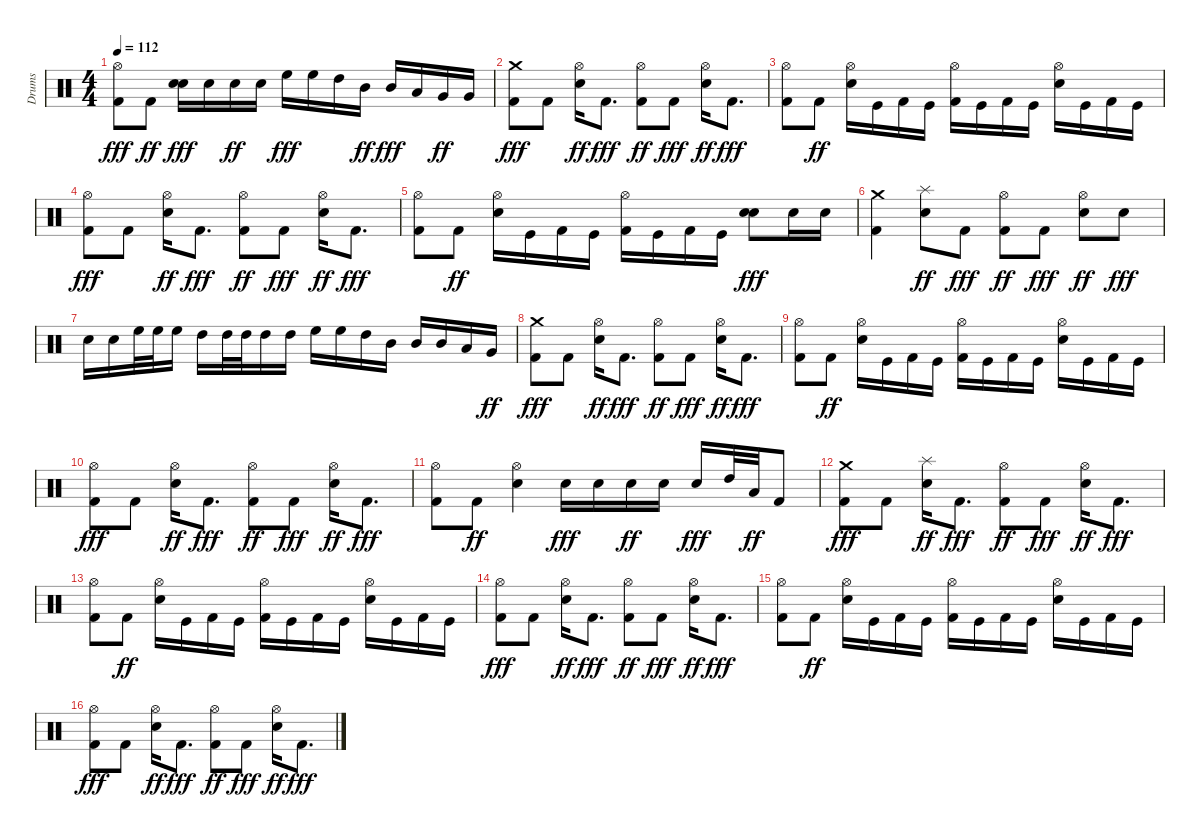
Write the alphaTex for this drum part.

\track ("Drums" "Drums") {instrument percussion}
\staff {score}
\articulation defaults
\ts (4 4)
\tempo 112
\clef neutral
\ks c
("Kick (hit) 2" "Hi-Hat (open)").8{dy fff} "Kick (hit) 2".8{dy ff} ("Snare (hit) 2" "Electric Snare (hit)").16{dy fff} "Snare (hit) 2".16 "Snare (hit) 2".16{dy ff} "Electric Snare (hit)".16 "High Floor Tom (hit)".16{dy fff} "High Floor Tom (hit)".16 "High Tom (hit)".16 "Mid Tom (hit)".16{dy ff} "Mid Tom (hit)".16{dy fff} "Low Tom (hit)".16 "Very Low Tom (hit)".16{dy ff} "Very Low Tom (hit)".16 |
("Kick (hit) 2" "Crash medium (hit)").8{dy fff} "Kick (hit) 2".8 ("Snare (hit) 2" "Hi-Hat (open)").16{dy ff} "Kick (hit) 2".8{d dy fff} ("Kick (hit) 2" "Hi-Hat (open)").8{dy ff} "Kick (hit) 2".8{dy fff} ("Snare (hit) 2" "Hi-Hat (open)").16{dy ff} "Kick (hit) 2".8{d dy fff} |
("Kick (hit) 2" "Hi-Hat (open)").8 "Kick (hit) 2".8{dy ff} ("Snare (hit) 2" "Hi-Hat (open)").16 "Kick (hit)".16 "Kick (hit) 2".16 "Kick (hit)".16 ("Kick (hit) 2" "Hi-Hat (open)").16 "Kick (hit)".16 "Kick (hit) 2".16 "Kick (hit)".16 ("Snare (hit) 2" "Hi-Hat (open)").16 "Kick (hit)".16 "Kick (hit) 2".16 "Kick (hit)".16 |
("Kick (hit) 2" "Hi-Hat (open)").8{dy fff} "Kick (hit) 2".8 ("Snare (hit) 2" "Hi-Hat (open)").16{dy ff} "Kick (hit) 2".8{d dy fff} ("Kick (hit) 2" "Hi-Hat (open)").8{dy ff} "Kick (hit) 2".8{dy fff} ("Snare (hit) 2" "Hi-Hat (open)").16{dy ff} "Kick (hit) 2".8{d dy fff} |
("Kick (hit) 2" "Hi-Hat (open)").8 "Kick (hit) 2".8{dy ff} ("Snare (hit) 2" "Hi-Hat (open)").16 "Kick (hit)".16 "Kick (hit) 2".16 "Kick (hit)".16 ("Kick (hit) 2" "Hi-Hat (open)").16 "Kick (hit)".16 "Kick (hit) 2".16 "Kick (hit)".16 ("Snare (hit) 2" "Snare (hit) 2").8{dy fff} "Snare (hit) 2".16 "Snare (hit) 2".16 |
("Kick (hit) 2" "Crash medium (hit)").4 ("Snare (hit) 2" "Splash (hit)").8{dy ff} "Kick (hit) 2".8{dy fff} ("Kick (hit) 2" "Hi-Hat (open)").8{dy ff} "Kick (hit) 2".8{dy fff} ("Snare (hit) 2" "Hi-Hat (open)").8{dy ff} "Snare (hit) 2".8{dy fff} |
"Snare (hit) 2".16 "Snare (hit) 2".16 "High Floor Tom (hit)".32 "High Floor Tom (hit)".32 "High Floor Tom (hit)".16 "High Tom (hit)".16 "High Tom (hit)".32 "High Tom (hit)".32 "High Tom (hit)".16 "High Tom (hit)".16 "High Floor Tom (hit)".16 "High Floor Tom (hit)".16 "High Tom (hit)".16 "Mid Tom (hit)".16 "Mid Tom (hit)".16 "Mid Tom (hit)".16 "Low Tom (hit)".16 "Very Low Tom (hit)".16{dy ff} |
("Kick (hit) 2" "Crash medium (hit)").8{dy fff} "Kick (hit) 2".8 ("Snare (hit) 2" "Hi-Hat (open)").16{dy ff} "Kick (hit) 2".8{d dy fff} ("Kick (hit) 2" "Hi-Hat (open)").8{dy ff} "Kick (hit) 2".8{dy fff} ("Snare (hit) 2" "Hi-Hat (open)").16{dy ff} "Kick (hit) 2".8{d dy fff} |
("Kick (hit) 2" "Hi-Hat (open)").8 "Kick (hit) 2".8{dy ff} ("Snare (hit) 2" "Hi-Hat (open)").16 "Kick (hit)".16 "Kick (hit) 2".16 "Kick (hit)".16 ("Kick (hit) 2" "Hi-Hat (open)").16 "Kick (hit)".16 "Kick (hit) 2".16 "Kick (hit)".16 ("Snare (hit) 2" "Hi-Hat (open)").16 "Kick (hit)".16 "Kick (hit) 2".16 "Kick (hit)".16 |
("Kick (hit) 2" "Hi-Hat (open)").8{dy fff} "Kick (hit) 2".8 ("Snare (hit) 2" "Hi-Hat (open)").16{dy ff} "Kick (hit) 2".8{d dy fff} ("Kick (hit) 2" "Hi-Hat (open)").8{dy ff} "Kick (hit) 2".8{dy fff} ("Snare (hit) 2" "Hi-Hat (open)").16{dy ff} "Kick (hit) 2".8{d dy fff} |
("Kick (hit) 2" "Hi-Hat (open)").8 "Kick (hit) 2".8{dy ff} ("Snare (hit) 2" "Hi-Hat (open)").4 "Snare (hit) 2".16{dy fff} "Snare (hit) 2".16 "Snare (hit) 2".16{dy ff} "Snare (hit) 2".16 "Snare (hit) 2".16{dy fff} "High Tom (hit)".32 "Low Tom (hit)".32{dy ff} "Kick (hit) 2".8 |
("Kick (hit) 2" "Crash medium (hit)").8{dy fff} "Kick (hit) 2".8 ("Snare (hit) 2" "Splash (hit)").16{dy ff} "Kick (hit) 2".8{d dy fff} ("Kick (hit) 2" "Hi-Hat (open)").8{dy ff} "Kick (hit) 2".8{dy fff} ("Snare (hit) 2" "Hi-Hat (open)").16{dy ff} "Kick (hit) 2".8{d dy fff} |
("Kick (hit) 2" "Hi-Hat (open)").8 "Kick (hit) 2".8{dy ff} ("Snare (hit) 2" "Hi-Hat (open)").16 "Kick (hit)".16 "Kick (hit) 2".16 "Kick (hit)".16 ("Kick (hit) 2" "Hi-Hat (open)").16 "Kick (hit)".16 "Kick (hit) 2".16 "Kick (hit)".16 ("Snare (hit) 2" "Hi-Hat (open)").16 "Kick (hit)".16 "Kick (hit) 2".16 "Kick (hit)".16 |
("Kick (hit) 2" "Hi-Hat (open)").8{dy fff} "Kick (hit) 2".8 ("Snare (hit) 2" "Hi-Hat (open)").16{dy ff} "Kick (hit) 2".8{d dy fff} ("Kick (hit) 2" "Hi-Hat (open)").8{dy ff} "Kick (hit) 2".8{dy fff} ("Snare (hit) 2" "Hi-Hat (open)").16{dy ff} "Kick (hit) 2".8{d dy fff} |
("Kick (hit) 2" "Hi-Hat (open)").8 "Kick (hit) 2".8{dy ff} ("Snare (hit) 2" "Hi-Hat (open)").16 "Kick (hit)".16 "Kick (hit) 2".16 "Kick (hit)".16 ("Kick (hit) 2" "Hi-Hat (open)").16 "Kick (hit)".16 "Kick (hit) 2".16 "Kick (hit)".16 ("Snare (hit) 2" "Hi-Hat (open)").16 "Kick (hit)".16 "Kick (hit) 2".16 "Kick (hit)".16 |
("Kick (hit) 2" "Hi-Hat (open)").8{dy fff} "Kick (hit) 2".8 ("Snare (hit) 2" "Hi-Hat (open)").16{dy ff} "Kick (hit) 2".8{d dy fff} ("Kick (hit) 2" "Hi-Hat (open)").8{dy ff} "Kick (hit) 2".8{dy fff} ("Snare (hit) 2" "Hi-Hat (open)").16{dy ff} "Kick (hit) 2".8{d dy fff}
